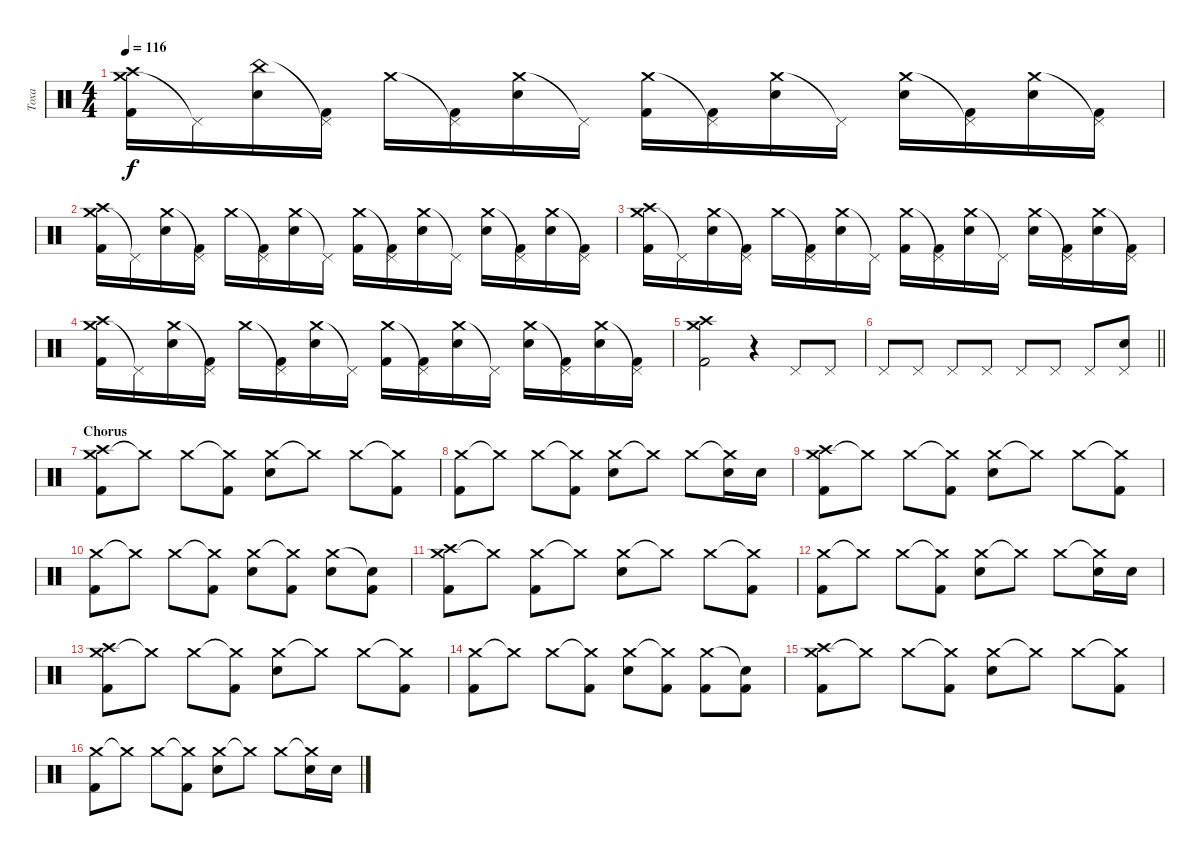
\track ("Тоха" "Тоха") {instrument percussion}
\staff {score}
\articulation defaults
\ts (4 4)
\tempo 116
\clef neutral
\ks c
("Crash medium (hit)" "Crash high (hit)" "Kick (hit) 2").16{dy f} "Pedal Hi-Hat (hit)"{t}.16 ("China (hit)" "Snare (hit) 2").16 ("Pedal Hi-Hat (hit)"{t} "Kick (hit) 2").16 "Crash medium (hit)".16 ("Pedal Hi-Hat (hit)"{t} "Kick (hit) 2").16 ("Crash medium (hit)" "Snare (hit) 2").16 "Pedal Hi-Hat (hit)"{t}.16 ("Crash medium (hit)" "Kick (hit) 2").16 ("Pedal Hi-Hat (hit)"{t} "Kick (hit) 2").16 ("Crash medium (hit)" "Snare (hit) 2").16 "Pedal Hi-Hat (hit)"{t}.16 ("Crash medium (hit)" "Snare (hit) 2").16 ("Pedal Hi-Hat (hit)"{t} "Kick (hit) 2").16 ("Crash medium (hit)" "Snare (hit) 2").16 ("Pedal Hi-Hat (hit)"{t} "Kick (hit) 2").16 |
("Crash medium (hit)" "Crash high (hit)" "Kick (hit) 2").16 "Pedal Hi-Hat (hit)"{t}.16 ("Crash medium (hit)" "Snare (hit) 2").16 ("Pedal Hi-Hat (hit)"{t} "Kick (hit) 2").16 "Crash medium (hit)".16 ("Pedal Hi-Hat (hit)"{t} "Kick (hit) 2").16 ("Crash medium (hit)" "Snare (hit) 2").16 "Pedal Hi-Hat (hit)"{t}.16 ("Crash medium (hit)" "Kick (hit) 2").16 ("Pedal Hi-Hat (hit)"{t} "Kick (hit) 2").16 ("Crash medium (hit)" "Snare (hit) 2").16 "Pedal Hi-Hat (hit)"{t}.16 ("Crash medium (hit)" "Snare (hit) 2").16 ("Pedal Hi-Hat (hit)"{t} "Kick (hit) 2").16 ("Crash medium (hit)" "Snare (hit) 2").16 ("Pedal Hi-Hat (hit)"{t} "Kick (hit) 2").16 |
("Crash medium (hit)" "Crash high (hit)" "Kick (hit) 2").16 "Pedal Hi-Hat (hit)"{t}.16 ("Crash medium (hit)" "Snare (hit) 2").16 ("Pedal Hi-Hat (hit)"{t} "Kick (hit) 2").16 "Crash medium (hit)".16 ("Pedal Hi-Hat (hit)"{t} "Kick (hit) 2").16 ("Crash medium (hit)" "Snare (hit) 2").16 "Pedal Hi-Hat (hit)"{t}.16 ("Crash medium (hit)" "Kick (hit) 2").16 ("Pedal Hi-Hat (hit)"{t} "Kick (hit) 2").16 ("Crash medium (hit)" "Snare (hit) 2").16 "Pedal Hi-Hat (hit)"{t}.16 ("Crash medium (hit)" "Snare (hit) 2").16 ("Pedal Hi-Hat (hit)"{t} "Kick (hit) 2").16 ("Crash medium (hit)" "Snare (hit) 2").16 ("Pedal Hi-Hat (hit)"{t} "Kick (hit) 2").16 |
("Crash medium (hit)" "Crash high (hit)" "Kick (hit) 2").16 "Pedal Hi-Hat (hit)"{t}.16 ("Crash medium (hit)" "Snare (hit) 2").16 ("Pedal Hi-Hat (hit)"{t} "Kick (hit) 2").16 "Crash medium (hit)".16 ("Pedal Hi-Hat (hit)"{t} "Kick (hit) 2").16 ("Crash medium (hit)" "Snare (hit) 2").16 "Pedal Hi-Hat (hit)"{t}.16 ("Crash medium (hit)" "Kick (hit) 2").16 ("Pedal Hi-Hat (hit)"{t} "Kick (hit) 2").16 ("Crash medium (hit)" "Snare (hit) 2").16 "Pedal Hi-Hat (hit)"{t}.16 ("Crash medium (hit)" "Snare (hit) 2").16 ("Pedal Hi-Hat (hit)"{t} "Kick (hit) 2").16 ("Crash medium (hit)" "Snare (hit) 2").16 ("Pedal Hi-Hat (hit)"{t} "Kick (hit) 2").16 |
("Crash medium (hit)" "Crash high (hit)" "Kick (hit) 2").2 r.4 "Pedal Hi-Hat (hit)".8 "Pedal Hi-Hat (hit)".8 |
\barLineRight lightlight "Pedal Hi-Hat (hit)".8 "Pedal Hi-Hat (hit)".8 "Pedal Hi-Hat (hit)".8 "Pedal Hi-Hat (hit)".8 "Pedal Hi-Hat (hit)".8 "Pedal Hi-Hat (hit)".8 "Pedal Hi-Hat (hit)".8
("Pedal Hi-Hat (hit)" "Snare (hit) 2").8 |
\section ("" "Chorus")
("Crash medium (hit)" "Crash high (hit)" "Kick (hit) 2").8 "Crash medium (hit)"{t}.8 "Crash medium (hit)".8 ("Crash medium (hit)"{t} "Kick (hit) 2").8 ("Crash medium (hit)" "Snare (hit) 2").8 "Crash medium (hit)"{t}.8 "Crash medium (hit)".8 ("Crash medium (hit)"{t} "Kick (hit) 2").8 |
("Crash medium (hit)" "Kick (hit) 2").8 "Crash medium (hit)"{t}.8 "Crash medium (hit)".8 ("Crash medium (hit)"{t} "Kick (hit) 2").8 ("Crash medium (hit)" "Snare (hit) 2").8 "Crash medium (hit)"{t}.8 "Crash medium (hit)".8 ("Crash medium (hit)"{t} "Snare (hit) 2").16 "Snare (hit) 2".16 |
("Crash medium (hit)" "Crash high (hit)" "Kick (hit) 2").8 "Crash medium (hit)"{t}.8 "Crash medium (hit)".8 ("Crash medium (hit)"{t} "Kick (hit) 2").8 ("Crash medium (hit)" "Snare (hit) 2").8 "Crash medium (hit)"{t}.8 "Crash medium (hit)".8 ("Crash medium (hit)"{t} "Kick (hit) 2").8 |
("Crash medium (hit)" "Kick (hit) 2").8 "Crash medium (hit)"{t}.8 "Crash medium (hit)".8 ("Crash medium (hit)"{t} "Kick (hit) 2").8 ("Crash medium (hit)" "Snare (hit) 2").8 ("Crash medium (hit)"{t} "Kick (hit) 2").8 ("Crash medium (hit)" "Snare (hit) 2").8 ("Snare (hit)"{t} "Kick (hit) 2").8 |
("Crash medium (hit)" "Crash high (hit)" "Kick (hit) 2").8 "Crash medium (hit)"{t}.8 ("Crash medium (hit)" "Kick (hit) 2").8 "Crash medium (hit)"{t}.8 ("Crash medium (hit)" "Snare (hit) 2").8 "Crash medium (hit)"{t}.8 "Crash medium (hit)".8 ("Crash medium (hit)"{t} "Kick (hit) 2").8 |
("Crash medium (hit)" "Kick (hit) 2").8 "Crash medium (hit)"{t}.8 "Crash medium (hit)".8 ("Crash medium (hit)"{t} "Kick (hit) 2").8 ("Crash medium (hit)" "Snare (hit) 2").8 "Crash medium (hit)"{t}.8 "Crash medium (hit)".8 ("Crash medium (hit)"{t} "Snare (hit) 2").16 "Snare (hit) 2".16 |
("Crash medium (hit)" "Crash high (hit)" "Kick (hit) 2").8 "Crash medium (hit)"{t}.8 "Crash medium (hit)".8 ("Crash medium (hit)"{t} "Kick (hit) 2").8 ("Crash medium (hit)" "Snare (hit) 2").8 "Crash medium (hit)"{t}.8 "Crash medium (hit)".8 ("Crash medium (hit)"{t} "Kick (hit) 2").8 |
("Crash medium (hit)" "Kick (hit) 2").8 "Crash medium (hit)"{t}.8 "Crash medium (hit)".8 ("Crash medium (hit)"{t} "Kick (hit) 2").8 ("Crash medium (hit)" "Snare (hit) 2").8 ("Crash medium (hit)"{t} "Kick (hit) 2").8 ("Crash medium (hit)" "Kick (hit) 2").8 ("Snare (hit)"{t} "Kick (hit) 2").8 |
("Crash medium (hit)" "Crash high (hit)" "Kick (hit) 2").8 "Crash medium (hit)"{t}.8 "Crash medium (hit)".8 ("Crash medium (hit)"{t} "Kick (hit) 2").8 ("Crash medium (hit)" "Snare (hit) 2").8 "Crash medium (hit)"{t}.8 "Crash medium (hit)".8 ("Crash medium (hit)"{t} "Kick (hit) 2").8 |
("Crash medium (hit)" "Kick (hit) 2").8 "Crash medium (hit)"{t}.8 "Crash medium (hit)".8 ("Crash medium (hit)"{t} "Kick (hit) 2").8 ("Crash medium (hit)" "Snare (hit) 2").8 "Crash medium (hit)"{t}.8 "Crash medium (hit)".8 ("Crash medium (hit)"{t} "Snare (hit) 2").16 "Snare (hit) 2".16
